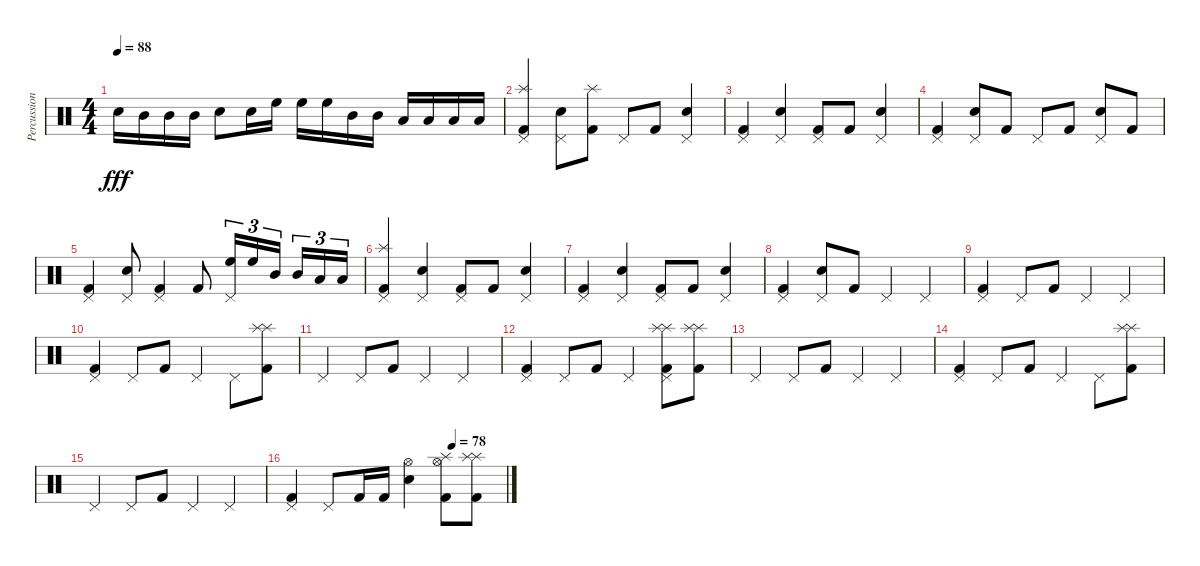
\track ("Percussion" "Percussion") {instrument percussion}
\staff {score}
\articulation defaults
\ts (4 4)
\tempo 88
\clef neutral
\ks c "Snare (hit) 2".16{dy fff} "Mid Tom (hit)".16 "Mid Tom (hit)".16 "Mid Tom (hit)".16 "Snare (hit) 2".8 "Snare (hit) 2".16 "High Floor Tom (hit)".16 "High Floor Tom (hit)".16 "High Floor Tom (hit)".16 "Mid Tom (hit)".16 "Mid Tom (hit)".16 "Low Tom (hit)".16 "Low Tom (hit)".16 "Low Tom (hit)".16 "Low Tom (hit)".16
|
("Pedal Hi-Hat (hit)" "Splash (hit)" "Kick (hit) 2").4 ("Pedal Hi-Hat (hit)" "Snare (hit) 2").8 ("Splash (hit)" "Kick (hit) 2").8 "Pedal Hi-Hat (hit)".8 "Kick (hit) 2".8 ("Pedal Hi-Hat (hit)" "Snare (hit) 2").4 |
("Pedal Hi-Hat (hit)" "Kick (hit) 2").4 ("Pedal Hi-Hat (hit)" "Snare (hit) 2").4 ("Pedal Hi-Hat (hit)" "Kick (hit) 2").8 "Kick (hit) 2".8 ("Pedal Hi-Hat (hit)" "Snare (hit) 2").4 |
("Pedal Hi-Hat (hit)" "Kick (hit) 2").4 ("Pedal Hi-Hat (hit)" "Snare (hit) 2").8 "Kick (hit) 2".8 "Pedal Hi-Hat (hit)".8 "Kick (hit) 2".8 ("Pedal Hi-Hat (hit)" "Snare (hit) 2").8 "Kick (hit) 2".8 |
("Pedal Hi-Hat (hit)" "Kick (hit) 2").4 ("Pedal Hi-Hat (hit)" "Snare (hit) 2").8 ("Pedal Hi-Hat (hit)" "Kick (hit) 2").4 "Kick (hit) 2".8 ("Pedal Hi-Hat (hit)" "High Floor Tom (hit)").16{tu (3 2)} "High Floor Tom (hit)".16{tu (3 2)} "Mid Tom (hit)".16{tu (3 2) beam splitsecondary} "Mid Tom (hit)".16{tu (3 2)} "Low Tom (hit)".16{tu (3 2)} "Low Tom (hit)".16{tu (3 2)} |
("Pedal Hi-Hat (hit)" "Splash (hit)" "Kick (hit) 2").4 ("Pedal Hi-Hat (hit)" "Snare (hit) 2").4 ("Pedal Hi-Hat (hit)" "Kick (hit) 2").8 "Kick (hit) 2".8 ("Pedal Hi-Hat (hit)" "Snare (hit) 2").4 |
("Pedal Hi-Hat (hit)" "Kick (hit) 2").4 ("Pedal Hi-Hat (hit)" "Snare (hit) 2").4 ("Pedal Hi-Hat (hit)" "Kick (hit) 2").8 "Kick (hit) 2".8 ("Pedal Hi-Hat (hit)" "Snare (hit) 2").4 |
("Pedal Hi-Hat (hit)" "Kick (hit) 2").4 ("Pedal Hi-Hat (hit)" "Snare (hit) 2").8 "Kick (hit) 2".8 "Pedal Hi-Hat (hit)".4 "Pedal Hi-Hat (hit)".4 |
("Pedal Hi-Hat (hit)" "Kick (hit) 2").4 "Pedal Hi-Hat (hit)".8 "Kick (hit) 2".8 "Pedal Hi-Hat (hit)".4 "Pedal Hi-Hat (hit)".4 |
("Pedal Hi-Hat (hit)" "Kick (hit) 2").4 "Pedal Hi-Hat (hit)".8 "Kick (hit) 2".8 "Pedal Hi-Hat (hit)".4 "Pedal Hi-Hat (hit)".8 ("Splash (hit)" "Splash (hit)" "Kick (hit) 2").8 |
"Pedal Hi-Hat (hit)".4 "Pedal Hi-Hat (hit)".8 "Kick (hit) 2".8 "Pedal Hi-Hat (hit)".4 "Pedal Hi-Hat (hit)".4 |
("Pedal Hi-Hat (hit)" "Kick (hit) 2").4 "Pedal Hi-Hat (hit)".8 "Kick (hit) 2".8 "Pedal Hi-Hat (hit)".4 ("Pedal Hi-Hat (hit)" "Splash (hit)" "Splash (hit)" "Kick (hit) 2").8 ("Splash (hit)" "Splash (hit)" "Kick (hit) 2").8 |
"Pedal Hi-Hat (hit)".4 "Pedal Hi-Hat (hit)".8 "Kick (hit) 2".8 "Pedal Hi-Hat (hit)".4 "Pedal Hi-Hat (hit)".4 |
("Pedal Hi-Hat (hit)" "Kick (hit) 2").4 "Pedal Hi-Hat (hit)".8 "Kick (hit) 2".8 "Pedal Hi-Hat (hit)".4 "Pedal Hi-Hat (hit)".8 ("Splash (hit)" "Splash (hit)" "Kick (hit) 2").8 |
"Pedal Hi-Hat (hit)".4 "Pedal Hi-Hat (hit)".8 "Kick (hit) 2".8 "Pedal Hi-Hat (hit)".4 "Pedal Hi-Hat (hit)".4 |
\tempo (78 0.75)
("Pedal Hi-Hat (hit)" "Kick (hit) 2").4 "Pedal Hi-Hat (hit)".8 "Kick (hit) 2".16 "Kick (hit) 2".16 ("Hi-Hat (open)" "Snare (hit) 2").4 ("Hi-Hat (open)" "Splash (hit)" "Kick (hit) 2").8 ("Splash (hit)" "Splash (hit)" "Kick (hit) 2").8
